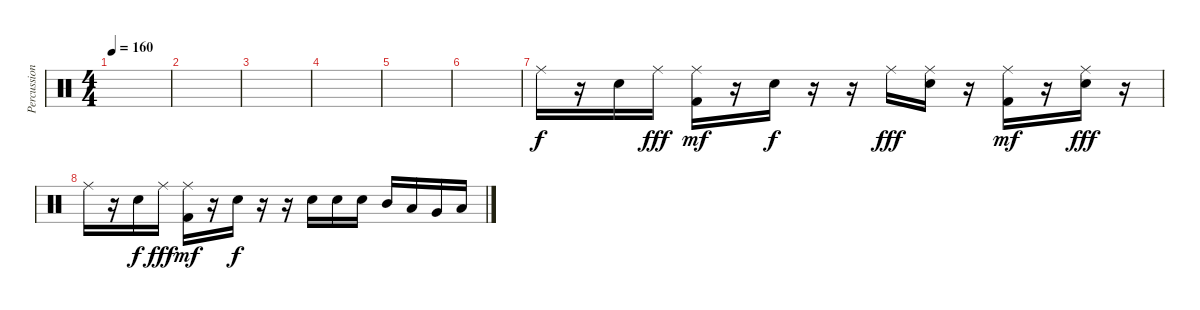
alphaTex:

\track ("Percussion" "Percussion") {instrument percussion}
\staff {score}
\articulation defaults
\ts (4 4)
\tempo 160
\clef neutral
\ks c
|
|
|
|
|
|
"Ride (middle)".16 r.16 "Electric Snare (hit)".16{dy f} "Ride (middle)".16{dy fff} ("Ride (middle)" "Kick (hit) 2").16{dy mf} r.16 "Electric Snare (hit)".16{dy f} r.16 r.16 "Ride (middle)".16{dy fff} ("Ride (middle)" "Electric Snare (hit)").16 r.16 ("Ride (middle)" "Kick (hit) 2").16{dy mf} r.16 ("Ride (middle)" "Electric Snare (hit)").16{dy fff} r.16 |
"Ride (middle)".16 r.16 "Electric Snare (hit)".16{dy f} "Ride (middle)".16{dy fff} ("Ride (middle)" "Kick (hit) 2").16{dy mf} r.16 "Electric Snare (hit)".16{dy f} r.16 r.16 "Electric Snare (hit)".16 "Electric Snare (hit)".16 "Electric Snare (hit)".16 "Mid Tom (hit)".16 "Low Tom (hit)".16 "Very Low Tom (hit)".16 "Low Floor Tom (hit)".16
